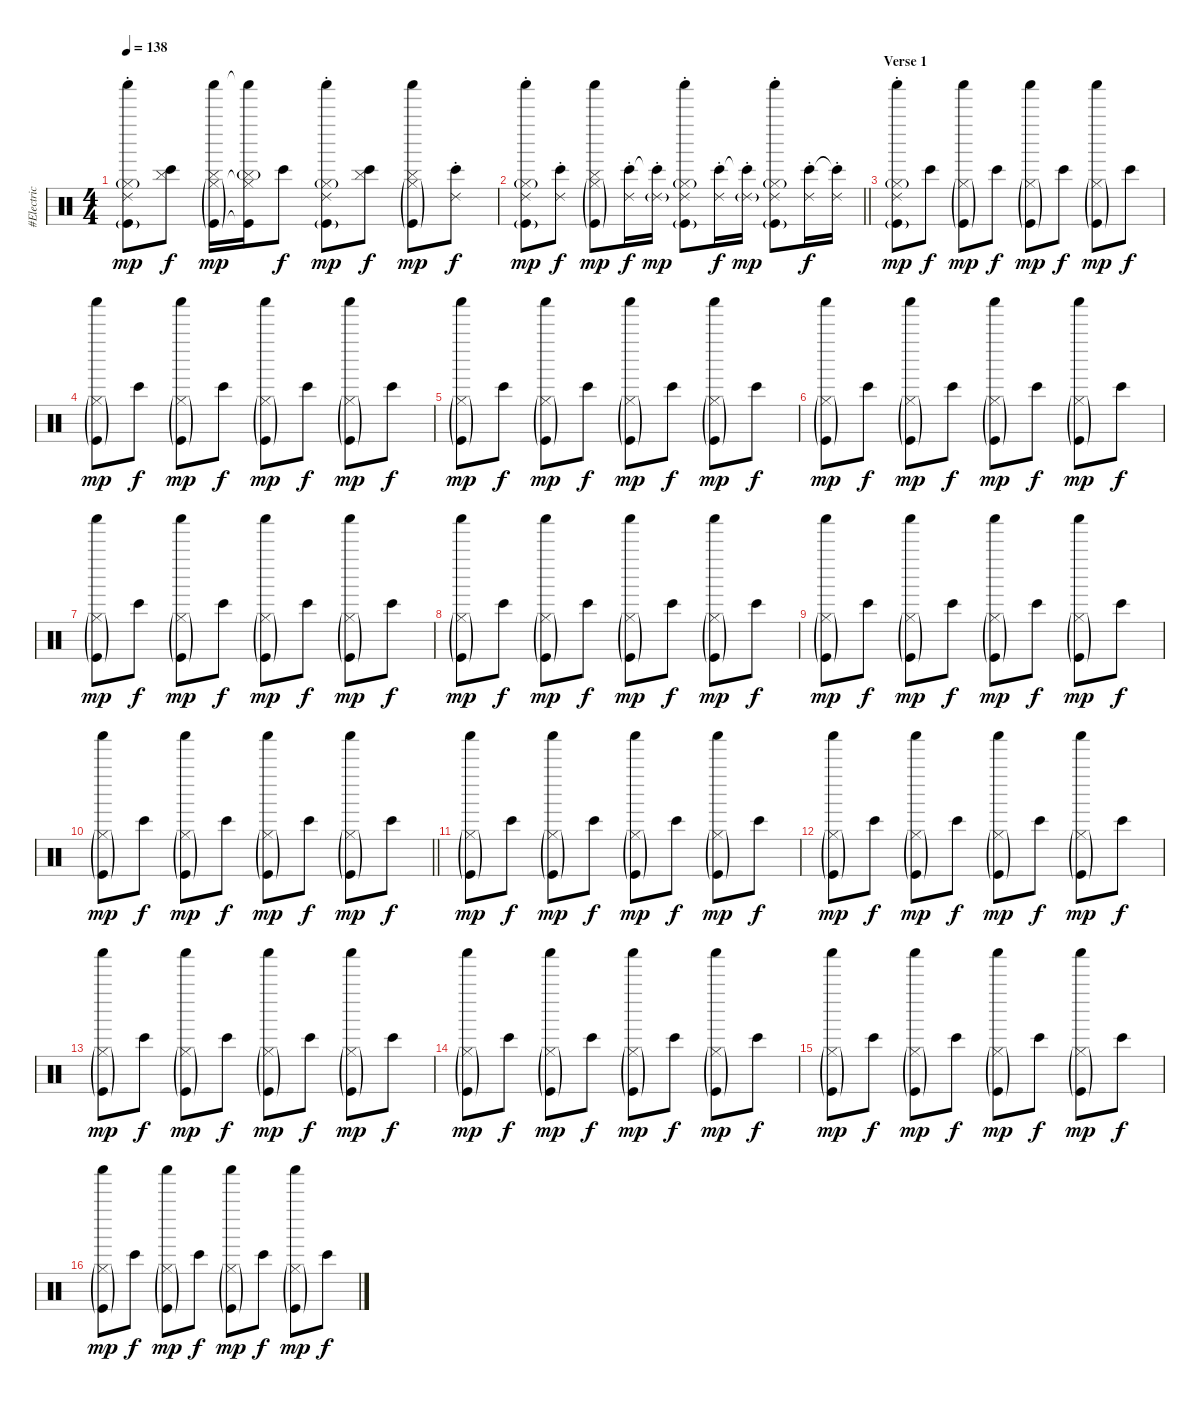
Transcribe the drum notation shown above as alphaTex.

\track ("#Electric Drums" "#Electric ") {instrument percussion}
\staff {score}
\articulation defaults
\ts (4 4)
\tempo 138
\clef neutral
\ks c
("Ride (choke) 2" "Kick (hit)"{g} "Shaker (hit)" "Hi-Hat (closed)"{g}).8{dy mp} ("Cymbal (hit)" "Bongo High (hit)").8{dy f} ("Cymbal (hit)" "Kick (hit)"{g} "Shaker (hit)" "Hi-Hat (closed)"{g}).16{dy mp} ("Cymbal (hit)"{g} "Kick (hit)"{t} "Shaker (hit)"{t} "Hi-Hat (closed)"{t}).16 "Bongo High (hit)".8{dy f} ("Ride (choke) 2" "Kick (hit)"{g} "Shaker (hit)" "Hi-Hat (closed)"{g}).8{dy mp} ("Cymbal (hit)" "Bongo High (hit)").8{dy f} ("Cymbal (hit)" "Kick (hit)"{g} "Shaker (hit)" "Hi-Hat (closed)"{g}).8{dy mp} ("Ride (choke) 2" "Bongo High (hit)").8{dy f} |
\barLineRight lightlight
("Ride (choke) 2" "Kick (hit)"{g} "Shaker (hit)" "Hi-Hat (closed)"{g}).8{dy mp} ("Ride (choke) 2" "Bongo High (hit)").8{dy f} ("Cymbal (hit)" "Kick (hit)"{g} "Shaker (hit)" "Hi-Hat (closed)"{g}).8{dy mp} ("Ride (choke) 2" "Bongo High (hit)").16{dy f} ("Ride (choke) 2"{g} "Bongo High (hit)"{t}).16{dy mp} ("Ride (choke) 2" "Kick (hit)"{g} "Shaker (hit)" "Hi-Hat (closed)"{g}).8 ("Ride (choke) 2" "Bongo High (hit)").16{dy f} ("Ride (choke) 2"{g} "Bongo High (hit)"{t}).16{dy mp} ("Ride (choke) 2" "Kick (hit)"{g} "Shaker (hit)" "Hi-Hat (closed)"{g}).8 ("Ride (choke) 2" "Bongo High (hit)").16{dy f} ("Ride (choke) 2" "Bongo High (hit)"{t}).16 |
\section ("" "Verse 1")
("Ride (choke) 2" "Kick (hit)"{g} "Shaker (hit)" "Hi-Hat (closed)"{g}).8{dy mp} "Bongo High (hit)".8{dy f} ("Kick (hit)"{g} "Shaker (hit)" "Hi-Hat (closed)"{g}).8{dy mp} "Bongo High (hit)".8{dy f} ("Kick (hit)"{g} "Shaker (hit)" "Hi-Hat (closed)"{g}).8{dy mp} "Bongo High (hit)".8{dy f} ("Kick (hit)"{g} "Shaker (hit)" "Hi-Hat (closed)"{g}).8{dy mp} "Bongo High (hit)".8{dy f} |
("Kick (hit)"{g} "Shaker (hit)" "Hi-Hat (closed)"{g}).8{dy mp} "Bongo High (hit)".8{dy f} ("Kick (hit)"{g} "Shaker (hit)" "Hi-Hat (closed)"{g}).8{dy mp} "Bongo High (hit)".8{dy f} ("Kick (hit)"{g} "Shaker (hit)" "Hi-Hat (closed)"{g}).8{dy mp} "Bongo High (hit)".8{dy f} ("Kick (hit)"{g} "Shaker (hit)" "Hi-Hat (closed)"{g}).8{dy mp} "Bongo High (hit)".8{dy f} |
("Kick (hit)"{g} "Shaker (hit)" "Hi-Hat (closed)"{g}).8{dy mp} "Bongo High (hit)".8{dy f} ("Kick (hit)"{g} "Shaker (hit)" "Hi-Hat (closed)"{g}).8{dy mp} "Bongo High (hit)".8{dy f} ("Kick (hit)"{g} "Shaker (hit)" "Hi-Hat (closed)"{g}).8{dy mp} "Bongo High (hit)".8{dy f} ("Kick (hit)"{g} "Shaker (hit)" "Hi-Hat (closed)"{g}).8{dy mp} "Bongo High (hit)".8{dy f} |
("Kick (hit)"{g} "Shaker (hit)" "Hi-Hat (closed)"{g}).8{dy mp} "Bongo High (hit)".8{dy f} ("Kick (hit)"{g} "Shaker (hit)" "Hi-Hat (closed)"{g}).8{dy mp} "Bongo High (hit)".8{dy f} ("Kick (hit)"{g} "Shaker (hit)" "Hi-Hat (closed)"{g}).8{dy mp} "Bongo High (hit)".8{dy f} ("Kick (hit)"{g} "Shaker (hit)" "Hi-Hat (closed)"{g}).8{dy mp} "Bongo High (hit)".8{dy f} |
("Kick (hit)"{g} "Shaker (hit)" "Hi-Hat (closed)"{g}).8{dy mp} "Bongo High (hit)".8{dy f} ("Kick (hit)"{g} "Shaker (hit)" "Hi-Hat (closed)"{g}).8{dy mp} "Bongo High (hit)".8{dy f} ("Kick (hit)"{g} "Shaker (hit)" "Hi-Hat (closed)"{g}).8{dy mp} "Bongo High (hit)".8{dy f} ("Kick (hit)"{g} "Shaker (hit)" "Hi-Hat (closed)"{g}).8{dy mp} "Bongo High (hit)".8{dy f} |
("Kick (hit)"{g} "Shaker (hit)" "Hi-Hat (closed)"{g}).8{dy mp} "Bongo High (hit)".8{dy f} ("Kick (hit)"{g} "Shaker (hit)" "Hi-Hat (closed)"{g}).8{dy mp} "Bongo High (hit)".8{dy f} ("Kick (hit)"{g} "Shaker (hit)" "Hi-Hat (closed)"{g}).8{dy mp} "Bongo High (hit)".8{dy f} ("Kick (hit)"{g} "Shaker (hit)" "Hi-Hat (closed)"{g}).8{dy mp} "Bongo High (hit)".8{dy f} |
("Kick (hit)"{g} "Shaker (hit)" "Hi-Hat (closed)"{g}).8{dy mp} "Bongo High (hit)".8{dy f} ("Kick (hit)"{g} "Shaker (hit)" "Hi-Hat (closed)"{g}).8{dy mp} "Bongo High (hit)".8{dy f} ("Kick (hit)"{g} "Shaker (hit)" "Hi-Hat (closed)"{g}).8{dy mp} "Bongo High (hit)".8{dy f} ("Kick (hit)"{g} "Shaker (hit)" "Hi-Hat (closed)"{g}).8{dy mp} "Bongo High (hit)".8{dy f} |
\barLineRight lightlight
("Kick (hit)"{g} "Shaker (hit)" "Hi-Hat (closed)"{g}).8{dy mp} "Bongo High (hit)".8{dy f} ("Kick (hit)"{g} "Shaker (hit)" "Hi-Hat (closed)"{g}).8{dy mp} "Bongo High (hit)".8{dy f} ("Kick (hit)"{g} "Shaker (hit)" "Hi-Hat (closed)"{g}).8{dy mp} "Bongo High (hit)".8{dy f} ("Kick (hit)"{g} "Shaker (hit)" "Hi-Hat (closed)"{g}).8{dy mp} "Bongo High (hit)".8{dy f} |
("Kick (hit)"{g} "Shaker (hit)" "Hi-Hat (closed)"{g}).8{dy mp} "Bongo High (hit)".8{dy f} ("Kick (hit)"{g} "Shaker (hit)" "Hi-Hat (closed)"{g}).8{dy mp} "Bongo High (hit)".8{dy f} ("Kick (hit)"{g} "Shaker (hit)" "Hi-Hat (closed)"{g}).8{dy mp} "Bongo High (hit)".8{dy f} ("Kick (hit)"{g} "Shaker (hit)" "Hi-Hat (closed)"{g}).8{dy mp} "Bongo High (hit)".8{dy f} |
("Kick (hit)"{g} "Shaker (hit)" "Hi-Hat (closed)"{g}).8{dy mp} "Bongo High (hit)".8{dy f} ("Kick (hit)"{g} "Shaker (hit)" "Hi-Hat (closed)"{g}).8{dy mp} "Bongo High (hit)".8{dy f} ("Kick (hit)"{g} "Shaker (hit)" "Hi-Hat (closed)"{g}).8{dy mp} "Bongo High (hit)".8{dy f} ("Kick (hit)"{g} "Shaker (hit)" "Hi-Hat (closed)"{g}).8{dy mp} "Bongo High (hit)".8{dy f} |
("Kick (hit)"{g} "Shaker (hit)" "Hi-Hat (closed)"{g}).8{dy mp} "Bongo High (hit)".8{dy f} ("Kick (hit)"{g} "Shaker (hit)" "Hi-Hat (closed)"{g}).8{dy mp} "Bongo High (hit)".8{dy f} ("Kick (hit)"{g} "Shaker (hit)" "Hi-Hat (closed)"{g}).8{dy mp} "Bongo High (hit)".8{dy f} ("Kick (hit)"{g} "Shaker (hit)" "Hi-Hat (closed)"{g}).8{dy mp} "Bongo High (hit)".8{dy f} |
("Kick (hit)"{g} "Shaker (hit)" "Hi-Hat (closed)"{g}).8{dy mp} "Bongo High (hit)".8{dy f} ("Kick (hit)"{g} "Shaker (hit)" "Hi-Hat (closed)"{g}).8{dy mp} "Bongo High (hit)".8{dy f} ("Kick (hit)"{g} "Shaker (hit)" "Hi-Hat (closed)"{g}).8{dy mp} "Bongo High (hit)".8{dy f} ("Kick (hit)"{g} "Shaker (hit)" "Hi-Hat (closed)"{g}).8{dy mp} "Bongo High (hit)".8{dy f} |
("Kick (hit)"{g} "Shaker (hit)" "Hi-Hat (closed)"{g}).8{dy mp} "Bongo High (hit)".8{dy f} ("Kick (hit)"{g} "Shaker (hit)" "Hi-Hat (closed)"{g}).8{dy mp} "Bongo High (hit)".8{dy f} ("Kick (hit)"{g} "Shaker (hit)" "Hi-Hat (closed)"{g}).8{dy mp} "Bongo High (hit)".8{dy f} ("Kick (hit)"{g} "Shaker (hit)" "Hi-Hat (closed)"{g}).8{dy mp} "Bongo High (hit)".8{dy f} |
("Kick (hit)"{g} "Shaker (hit)" "Hi-Hat (closed)"{g}).8{dy mp} "Bongo High (hit)".8{dy f} ("Kick (hit)"{g} "Shaker (hit)" "Hi-Hat (closed)"{g}).8{dy mp} "Bongo High (hit)".8{dy f} ("Kick (hit)"{g} "Shaker (hit)" "Hi-Hat (closed)"{g}).8{dy mp} "Bongo High (hit)".8{dy f} ("Kick (hit)"{g} "Shaker (hit)" "Hi-Hat (closed)"{g}).8{dy mp} "Bongo High (hit)".8{dy f}
